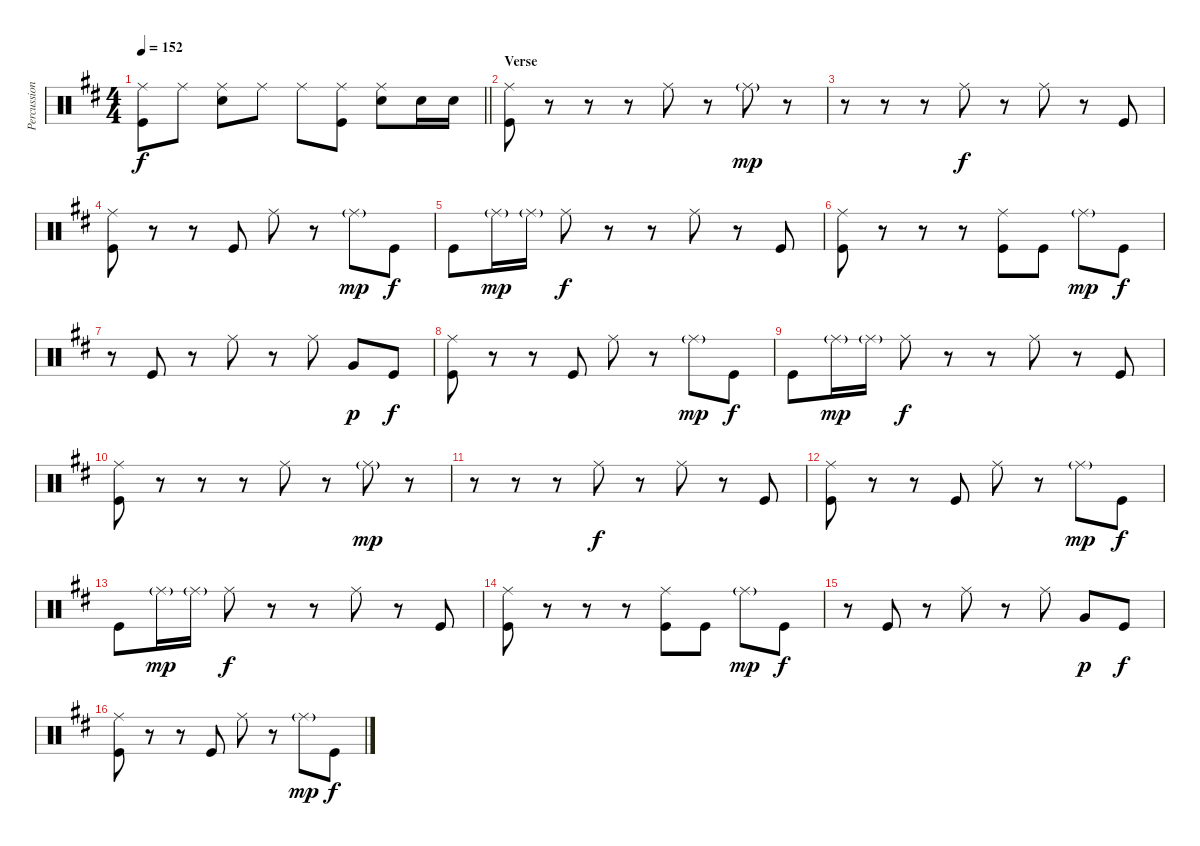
\track ("Percussion" "Percussion") {instrument percussion}
\staff {score}
\articulation defaults
\ts (4 4)
\tempo 152
\clef neutral
\barLineRight lightlight
\ks d
("Ride (middle)" "Kick (hit)").8{dy f} "Ride (middle)".8 ("Ride (middle)" "Snare (hit) 2").8 "Ride (middle)".8 "Ride (middle)".8 ("Ride (middle)" "Kick (hit)").8 ("Ride (middle)" "Snare (hit) 2").8 "Snare (hit) 2".16 "Snare (hit) 2".16 |
\section ("" "Verse")
("Ride (middle)" "Kick (hit)").8 r.8 r.8 r.8 "Ride (middle)".8 r.8 "Ride (middle)"{g}.8{dy mp} r.8 |
r.8 r.8 r.8 "Ride (middle)".8{dy f} r.8 "Ride (middle)".8 r.8 "Kick (hit)".8 |
("Ride (middle)" "Kick (hit)").8 r.8 r.8 "Kick (hit)".8 "Ride (middle)".8 r.8 "Ride (middle)"{g}.8{dy mp} "Kick (hit)".8{dy f} |
"Kick (hit)".8 "Ride (middle)"{g}.16{dy mp} "Ride (middle)"{g}.16 "Ride (middle)".8{dy f} r.8 r.8 "Ride (middle)".8 r.8 "Kick (hit)".8 |
("Ride (middle)" "Kick (hit)").8 r.8 r.8 r.8 ("Ride (middle)" "Kick (hit)").8 "Kick (hit)".8 "Ride (middle)"{g}.8{dy mp} "Kick (hit)".8{dy f} |
r.8 "Kick (hit)".8 r.8 "Ride (middle)".8 r.8 "Ride (middle)".8 "Very Low Tom (hit)".8{dy p} "Kick (hit)".8{dy f} |
("Ride (middle)" "Kick (hit)").8 r.8 r.8 "Kick (hit)".8 "Ride (middle)".8 r.8 "Ride (middle)"{g}.8{dy mp} "Kick (hit)".8{dy f} |
"Kick (hit)".8 "Ride (middle)"{g}.16{dy mp} "Ride (middle)"{g}.16 "Ride (middle)".8{dy f} r.8 r.8 "Ride (middle)".8 r.8 "Kick (hit)".8 |
("Ride (middle)" "Kick (hit)").8 r.8 r.8 r.8 "Ride (middle)".8 r.8 "Ride (middle)"{g}.8{dy mp} r.8 |
r.8 r.8 r.8 "Ride (middle)".8{dy f} r.8 "Ride (middle)".8 r.8 "Kick (hit)".8 |
("Ride (middle)" "Kick (hit)").8 r.8 r.8 "Kick (hit)".8 "Ride (middle)".8 r.8 "Ride (middle)"{g}.8{dy mp} "Kick (hit)".8{dy f} |
"Kick (hit)".8 "Ride (middle)"{g}.16{dy mp} "Ride (middle)"{g}.16 "Ride (middle)".8{dy f} r.8 r.8 "Ride (middle)".8 r.8 "Kick (hit)".8 |
("Ride (middle)" "Kick (hit)").8 r.8 r.8 r.8 ("Ride (middle)" "Kick (hit)").8 "Kick (hit)".8 "Ride (middle)"{g}.8{dy mp} "Kick (hit)".8{dy f} |
r.8 "Kick (hit)".8 r.8 "Ride (middle)".8 r.8 "Ride (middle)".8 "Very Low Tom (hit)".8{dy p} "Kick (hit)".8{dy f} |
("Ride (middle)" "Kick (hit)").8 r.8 r.8 "Kick (hit)".8 "Ride (middle)".8 r.8 "Ride (middle)"{g}.8{dy mp} "Kick (hit)".8{dy f}
